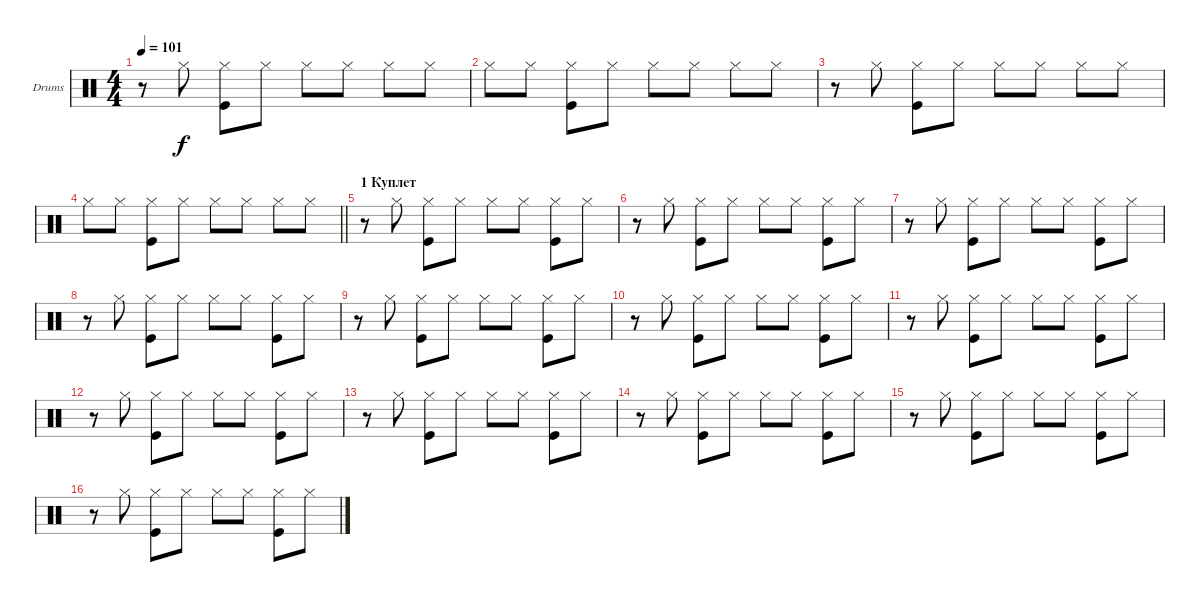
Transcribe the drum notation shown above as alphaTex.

\bracketExtendMode groupsimilarinstruments
\firstSystemTrackNameOrientation horizontal
\otherSystemsTrackNameOrientation horizontal
\track ("Г.Гурьянов (ударные)" "Drums") {instrument percussion}
\staff {score}
\articulation defaults
\ts (4 4)
\tempo 101
\clef neutral
\ks c
r.8{dy f} "Hi-Hat (closed)".8 ("Hi-Hat (closed)" "Kick (hit)").8 "Hi-Hat (closed)".8 "Hi-Hat (closed)".8 "Hi-Hat (closed)".8 "Hi-Hat (closed)".8 "Hi-Hat (closed)".8 |
"Hi-Hat (closed)".8 "Hi-Hat (closed)".8 ("Hi-Hat (closed)" "Kick (hit)").8 "Hi-Hat (closed)".8 "Hi-Hat (closed)".8 "Hi-Hat (closed)".8 "Hi-Hat (closed)".8 "Hi-Hat (closed)".8 |
r.8 "Hi-Hat (closed)".8 ("Hi-Hat (closed)" "Kick (hit)").8 "Hi-Hat (closed)".8 "Hi-Hat (closed)".8 "Hi-Hat (closed)".8 "Hi-Hat (closed)".8 "Hi-Hat (closed)".8 |
\barLineRight lightlight "Hi-Hat (closed)".8 "Hi-Hat (closed)".8
("Hi-Hat (closed)" "Kick (hit)").8 "Hi-Hat (closed)".8 "Hi-Hat (closed)".8 "Hi-Hat (closed)".8 "Hi-Hat (closed)".8 "Hi-Hat (closed)".8 |
\section ("" "1 Куплет")
r.8 "Hi-Hat (closed)".8 ("Hi-Hat (closed)" "Kick (hit)").8 "Hi-Hat (closed)".8 "Hi-Hat (closed)".8 "Hi-Hat (closed)".8 ("Hi-Hat (closed)" "Kick (hit)").8 "Hi-Hat (closed)".8 |
r.8 "Hi-Hat (closed)".8 ("Hi-Hat (closed)" "Kick (hit)").8 "Hi-Hat (closed)".8 "Hi-Hat (closed)".8 "Hi-Hat (closed)".8 ("Hi-Hat (closed)" "Kick (hit)").8 "Hi-Hat (closed)".8 |
r.8 "Hi-Hat (closed)".8 ("Hi-Hat (closed)" "Kick (hit)").8 "Hi-Hat (closed)".8 "Hi-Hat (closed)".8 "Hi-Hat (closed)".8 ("Hi-Hat (closed)" "Kick (hit)").8 "Hi-Hat (closed)".8 |
r.8 "Hi-Hat (closed)".8 ("Hi-Hat (closed)" "Kick (hit)").8 "Hi-Hat (closed)".8 "Hi-Hat (closed)".8 "Hi-Hat (closed)".8 ("Hi-Hat (closed)" "Kick (hit)").8 "Hi-Hat (closed)".8 |
r.8 "Hi-Hat (closed)".8 ("Hi-Hat (closed)" "Kick (hit)").8 "Hi-Hat (closed)".8 "Hi-Hat (closed)".8 "Hi-Hat (closed)".8 ("Hi-Hat (closed)" "Kick (hit)").8 "Hi-Hat (closed)".8 |
r.8 "Hi-Hat (closed)".8 ("Hi-Hat (closed)" "Kick (hit)").8 "Hi-Hat (closed)".8 "Hi-Hat (closed)".8 "Hi-Hat (closed)".8 ("Hi-Hat (closed)" "Kick (hit)").8 "Hi-Hat (closed)".8 |
r.8 "Hi-Hat (closed)".8 ("Hi-Hat (closed)" "Kick (hit)").8 "Hi-Hat (closed)".8 "Hi-Hat (closed)".8 "Hi-Hat (closed)".8 ("Hi-Hat (closed)" "Kick (hit)").8 "Hi-Hat (closed)".8 |
r.8 "Hi-Hat (closed)".8 ("Hi-Hat (closed)" "Kick (hit)").8 "Hi-Hat (closed)".8 "Hi-Hat (closed)".8 "Hi-Hat (closed)".8 ("Hi-Hat (closed)" "Kick (hit)").8 "Hi-Hat (closed)".8 |
r.8 "Hi-Hat (closed)".8 ("Hi-Hat (closed)" "Kick (hit)").8 "Hi-Hat (closed)".8 "Hi-Hat (closed)".8 "Hi-Hat (closed)".8 ("Hi-Hat (closed)" "Kick (hit)").8 "Hi-Hat (closed)".8 |
r.8 "Hi-Hat (closed)".8 ("Hi-Hat (closed)" "Kick (hit)").8 "Hi-Hat (closed)".8 "Hi-Hat (closed)".8 "Hi-Hat (closed)".8 ("Hi-Hat (closed)" "Kick (hit)").8 "Hi-Hat (closed)".8 |
r.8 "Hi-Hat (closed)".8 ("Hi-Hat (closed)" "Kick (hit)").8 "Hi-Hat (closed)".8 "Hi-Hat (closed)".8 "Hi-Hat (closed)".8 ("Hi-Hat (closed)" "Kick (hit)").8 "Hi-Hat (closed)".8 |
r.8 "Hi-Hat (closed)".8 ("Hi-Hat (closed)" "Kick (hit)").8 "Hi-Hat (closed)".8 "Hi-Hat (closed)".8 "Hi-Hat (closed)".8 ("Hi-Hat (closed)" "Kick (hit)").8 "Hi-Hat (closed)".8
